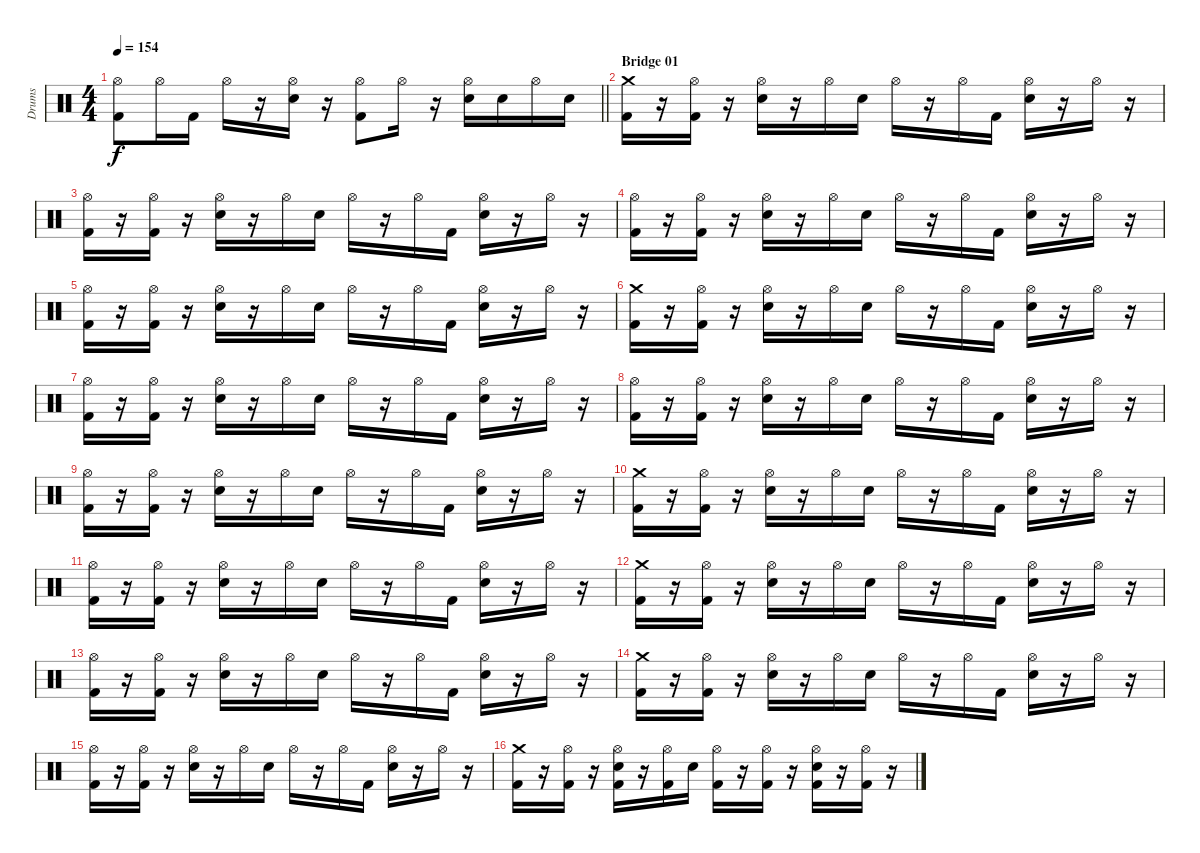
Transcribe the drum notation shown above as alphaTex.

\track ("Drums" "Drums") {instrument percussion}
\staff {score}
\articulation defaults
\ts (4 4)
\tempo 154
\clef neutral
\barLineRight lightlight
\ks c
("Kick (hit) 2" "Hi-Hat (open)").8{dy f} "Hi-Hat (open)".16 "Kick (hit) 2".16 "Hi-Hat (open)".16 r.16 ("Electric Snare (hit)" "Hi-Hat (open)").16 r.16 ("Kick (hit) 2" "Hi-Hat (open)").8 "Hi-Hat (open)".16 r.16 ("Electric Snare (hit)" "Hi-Hat (open)").16 "Electric Snare (hit)".16 "Hi-Hat (open)".16 "Electric Snare (hit)".16 |
\section ("" "Bridge 01")
("Kick (hit) 2" "Crash medium (hit)").16 r.16 ("Kick (hit) 2" "Hi-Hat (open)").16 r.16 ("Electric Snare (hit)" "Hi-Hat (open)").16 r.16 "Hi-Hat (open)".16 "Electric Snare (hit)".16 "Hi-Hat (open)".16 r.16 "Hi-Hat (open)".16 "Kick (hit) 2".16 ("Electric Snare (hit)" "Hi-Hat (open)").16 r.16 "Hi-Hat (open)".16 r.16 |
("Kick (hit) 2" "Hi-Hat (open)").16 r.16 ("Kick (hit) 2" "Hi-Hat (open)").16 r.16 ("Electric Snare (hit)" "Hi-Hat (open)").16 r.16 "Hi-Hat (open)".16 "Electric Snare (hit)".16 "Hi-Hat (open)".16 r.16 "Hi-Hat (open)".16 "Kick (hit) 2".16 ("Electric Snare (hit)" "Hi-Hat (open)").16 r.16 "Hi-Hat (open)".16 r.16 |
("Kick (hit) 2" "Hi-Hat (open)").16 r.16 ("Kick (hit) 2" "Hi-Hat (open)").16 r.16 ("Electric Snare (hit)" "Hi-Hat (open)").16 r.16 "Hi-Hat (open)".16 "Electric Snare (hit)".16 "Hi-Hat (open)".16 r.16 "Hi-Hat (open)".16 "Kick (hit) 2".16 ("Electric Snare (hit)" "Hi-Hat (open)").16 r.16 "Hi-Hat (open)".16 r.16 |
("Kick (hit) 2" "Hi-Hat (open)").16 r.16 ("Kick (hit) 2" "Hi-Hat (open)").16 r.16 ("Electric Snare (hit)" "Hi-Hat (open)").16 r.16 "Hi-Hat (open)".16 "Electric Snare (hit)".16 "Hi-Hat (open)".16 r.16 "Hi-Hat (open)".16 "Kick (hit) 2".16 ("Electric Snare (hit)" "Hi-Hat (open)").16 r.16 "Hi-Hat (open)".16 r.16 |
("Kick (hit) 2" "Crash medium (hit)").16 r.16 ("Kick (hit) 2" "Hi-Hat (open)").16 r.16 ("Electric Snare (hit)" "Hi-Hat (open)").16 r.16 "Hi-Hat (open)".16 "Electric Snare (hit)".16 "Hi-Hat (open)".16 r.16 "Hi-Hat (open)".16 "Kick (hit) 2".16 ("Electric Snare (hit)" "Hi-Hat (open)").16 r.16 "Hi-Hat (open)".16 r.16 |
("Kick (hit) 2" "Hi-Hat (open)").16 r.16 ("Kick (hit) 2" "Hi-Hat (open)").16 r.16 ("Electric Snare (hit)" "Hi-Hat (open)").16 r.16 "Hi-Hat (open)".16 "Electric Snare (hit)".16 "Hi-Hat (open)".16 r.16 "Hi-Hat (open)".16 "Kick (hit) 2".16 ("Electric Snare (hit)" "Hi-Hat (open)").16 r.16 "Hi-Hat (open)".16 r.16 |
("Kick (hit) 2" "Hi-Hat (open)").16 r.16 ("Kick (hit) 2" "Hi-Hat (open)").16 r.16 ("Electric Snare (hit)" "Hi-Hat (open)").16 r.16 "Hi-Hat (open)".16 "Electric Snare (hit)".16 "Hi-Hat (open)".16 r.16 "Hi-Hat (open)".16 "Kick (hit) 2".16 ("Electric Snare (hit)" "Hi-Hat (open)").16 r.16 "Hi-Hat (open)".16 r.16 |
("Kick (hit) 2" "Hi-Hat (open)").16 r.16 ("Kick (hit) 2" "Hi-Hat (open)").16 r.16 ("Electric Snare (hit)" "Hi-Hat (open)").16 r.16 "Hi-Hat (open)".16 "Electric Snare (hit)".16 "Hi-Hat (open)".16 r.16 "Hi-Hat (open)".16 "Kick (hit) 2".16 ("Electric Snare (hit)" "Hi-Hat (open)").16 r.16 "Hi-Hat (open)".16 r.16 |
("Kick (hit) 2" "Crash medium (hit)").16 r.16 ("Kick (hit) 2" "Hi-Hat (open)").16 r.16 ("Electric Snare (hit)" "Hi-Hat (open)").16 r.16 "Hi-Hat (open)".16 "Electric Snare (hit)".16 "Hi-Hat (open)".16 r.16 "Hi-Hat (open)".16 "Kick (hit) 2".16 ("Electric Snare (hit)" "Hi-Hat (open)").16 r.16 "Hi-Hat (open)".16 r.16 |
("Kick (hit) 2" "Hi-Hat (open)").16 r.16 ("Kick (hit) 2" "Hi-Hat (open)").16 r.16 ("Electric Snare (hit)" "Hi-Hat (open)").16 r.16 "Hi-Hat (open)".16 "Electric Snare (hit)".16 "Hi-Hat (open)".16 r.16 "Hi-Hat (open)".16 "Kick (hit) 2".16 ("Electric Snare (hit)" "Hi-Hat (open)").16 r.16 "Hi-Hat (open)".16 r.16 |
("Kick (hit) 2" "Crash medium (hit)").16 r.16 ("Kick (hit) 2" "Hi-Hat (open)").16 r.16 ("Electric Snare (hit)" "Hi-Hat (open)").16 r.16 "Hi-Hat (open)".16 "Electric Snare (hit)".16 "Hi-Hat (open)".16 r.16 "Hi-Hat (open)".16 "Kick (hit) 2".16 ("Electric Snare (hit)" "Hi-Hat (open)").16 r.16 "Hi-Hat (open)".16 r.16 |
("Kick (hit) 2" "Hi-Hat (open)").16 r.16 ("Kick (hit) 2" "Hi-Hat (open)").16 r.16 ("Electric Snare (hit)" "Hi-Hat (open)").16 r.16 "Hi-Hat (open)".16 "Electric Snare (hit)".16 "Hi-Hat (open)".16 r.16 "Hi-Hat (open)".16 "Kick (hit) 2".16 ("Electric Snare (hit)" "Hi-Hat (open)").16 r.16 "Hi-Hat (open)".16 r.16 |
("Kick (hit) 2" "Crash medium (hit)").16 r.16 ("Kick (hit) 2" "Hi-Hat (open)").16 r.16 ("Electric Snare (hit)" "Hi-Hat (open)").16 r.16 "Hi-Hat (open)".16 "Electric Snare (hit)".16 "Hi-Hat (open)".16 r.16 "Hi-Hat (open)".16 "Kick (hit) 2".16 ("Electric Snare (hit)" "Hi-Hat (open)").16 r.16 "Hi-Hat (open)".16 r.16 |
("Kick (hit) 2" "Hi-Hat (open)").16 r.16 ("Kick (hit) 2" "Hi-Hat (open)").16 r.16 ("Electric Snare (hit)" "Hi-Hat (open)").16 r.16 "Hi-Hat (open)".16 "Electric Snare (hit)".16 "Hi-Hat (open)".16 r.16 "Hi-Hat (open)".16 "Kick (hit) 2".16 ("Electric Snare (hit)" "Hi-Hat (open)").16 r.16 "Hi-Hat (open)".16 r.16 |
("Kick (hit) 2" "Crash medium (hit)").16 r.16 ("Kick (hit) 2" "Hi-Hat (open)").16 r.16 ("Kick (hit) 2" "Electric Snare (hit)" "Hi-Hat (open)").16 r.16 ("Kick (hit) 2" "Hi-Hat (open)").16 "Electric Snare (hit)".16 ("Kick (hit) 2" "Hi-Hat (open)").16 r.16 ("Kick (hit) 2" "Hi-Hat (open)").16 r.16 ("Kick (hit) 2" "Electric Snare (hit)" "Hi-Hat (open)").16 r.16 ("Kick (hit) 2" "Hi-Hat (open)").16 r.16
